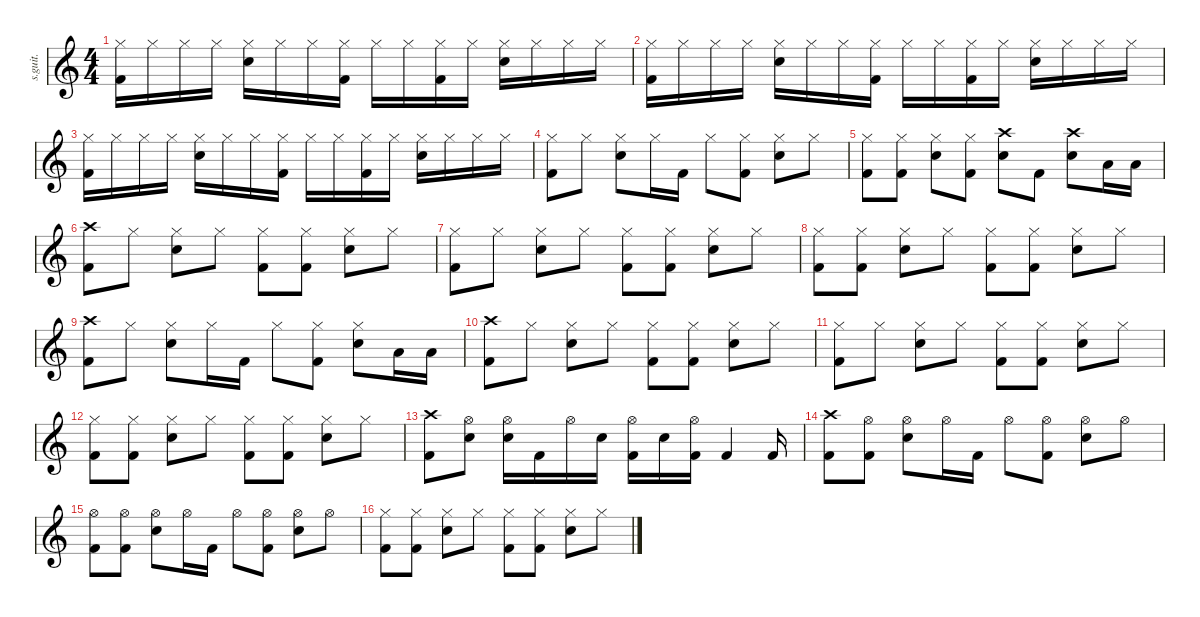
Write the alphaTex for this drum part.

\defaultSystemsLayout 4
\hideDynamics
\bracketExtendMode nobrackets
\track ("" "s.guit.") {instrument percussion}
\staff {score}
\articulation defaults
\ts (4 4)
\tempo (82 hide)
\clef g2
\ks c
("Hi-Hat (closed)" "Kick (hit) 2").16{dy f} "Hi-Hat (closed)".16 "Hi-Hat (closed)".16 "Hi-Hat (closed)".16 ("Hi-Hat (closed)" "Snare (hit) 2").16 "Hi-Hat (closed)".16 "Hi-Hat (closed)".16 ("Hi-Hat (closed)" "Kick (hit) 2").16 "Hi-Hat (closed)".16 "Hi-Hat (closed)".16 ("Hi-Hat (closed)" "Kick (hit) 2").16 "Hi-Hat (closed)".16 ("Hi-Hat (closed)" "Snare (hit) 2").16 "Hi-Hat (closed)".16 "Hi-Hat (closed)".16 "Hi-Hat (closed)".16 |
("Hi-Hat (closed)" "Kick (hit) 2").16 "Hi-Hat (closed)".16 "Hi-Hat (closed)".16 "Hi-Hat (closed)".16 ("Hi-Hat (closed)" "Snare (hit) 2").16 "Hi-Hat (closed)".16 "Hi-Hat (closed)".16 ("Hi-Hat (closed)" "Kick (hit) 2").16 "Hi-Hat (closed)".16 "Hi-Hat (closed)".16 ("Hi-Hat (closed)" "Kick (hit) 2").16 "Hi-Hat (closed)".16 ("Hi-Hat (closed)" "Snare (hit) 2").16 "Hi-Hat (closed)".16 "Hi-Hat (closed)".16 "Hi-Hat (closed)".16 |
("Hi-Hat (closed)" "Kick (hit) 2").16 "Hi-Hat (closed)".16 "Hi-Hat (closed)".16 "Hi-Hat (closed)".16 ("Hi-Hat (closed)" "Snare (hit) 2").16 "Hi-Hat (closed)".16 "Hi-Hat (closed)".16 ("Hi-Hat (closed)" "Kick (hit) 2").16 "Hi-Hat (closed)".16 "Hi-Hat (closed)".16 ("Hi-Hat (closed)" "Kick (hit) 2").16 "Hi-Hat (closed)".16 ("Hi-Hat (closed)" "Snare (hit) 2").16 "Hi-Hat (closed)".16 "Hi-Hat (closed)".16 "Hi-Hat (closed)".16 |
("Hi-Hat (closed)" "Kick (hit) 2").8 "Hi-Hat (closed)".8 ("Hi-Hat (closed)" "Snare (hit) 2").8 "Hi-Hat (closed)".16 "Kick (hit) 2".16 "Hi-Hat (closed)".8 ("Hi-Hat (closed)" "Kick (hit) 2").8 ("Hi-Hat (closed)" "Snare (hit) 2").8 "Hi-Hat (closed)".8 |
("Hi-Hat (closed)" "Kick (hit) 2").8 ("Hi-Hat (closed)" "Kick (hit) 2").8 ("Hi-Hat (closed)" "Snare (hit) 2").8 ("Hi-Hat (closed)" "Kick (hit) 2").8 ("Crash high (hit)" "Snare (hit) 2").8 "Kick (hit) 2".8 ("Crash high (hit)" "Snare (hit) 2").8 "Low Tom (hit)".16 "Low Tom (hit)".16 |
("Crash high (hit)" "Kick (hit) 2").8 "Hi-Hat (closed)".8 ("Hi-Hat (closed)" "Snare (hit) 2").8 "Hi-Hat (closed)".8 ("Hi-Hat (closed)" "Kick (hit) 2").8 ("Hi-Hat (closed)" "Kick (hit) 2").8 ("Hi-Hat (closed)" "Snare (hit) 2").8 "Hi-Hat (closed)".8 |
("Hi-Hat (closed)" "Kick (hit) 2").8 "Hi-Hat (closed)".8 ("Hi-Hat (closed)" "Snare (hit) 2").8 "Hi-Hat (closed)".8 ("Hi-Hat (closed)" "Kick (hit) 2").8 ("Hi-Hat (closed)" "Kick (hit) 2").8 ("Hi-Hat (closed)" "Snare (hit) 2").8 "Hi-Hat (closed)".8 |
("Hi-Hat (closed)" "Kick (hit) 2").8 ("Hi-Hat (closed)" "Kick (hit) 2").8 ("Hi-Hat (closed)" "Snare (hit) 2").8 "Hi-Hat (closed)".8 ("Hi-Hat (closed)" "Kick (hit) 2").8 ("Hi-Hat (closed)" "Kick (hit) 2").8 ("Hi-Hat (closed)" "Snare (hit) 2").8 "Hi-Hat (closed)".8 |
("Crash high (hit)" "Kick (hit) 2").8 "Hi-Hat (closed)".8 ("Hi-Hat (closed)" "Snare (hit) 2").8 "Hi-Hat (closed)".16 "Kick (hit) 2".16 "Hi-Hat (closed)".8 ("Hi-Hat (closed)" "Kick (hit) 2").8 ("Hi-Hat (closed)" "Snare (hit) 2").8 "Low Tom (hit)".16 "Low Tom (hit)".16 |
("Crash high (hit)" "Kick (hit) 2").8 "Hi-Hat (closed)".8 ("Hi-Hat (closed)" "Snare (hit) 2").8 "Hi-Hat (closed)".8 ("Hi-Hat (closed)" "Kick (hit) 2").8 ("Hi-Hat (closed)" "Kick (hit) 2").8 ("Hi-Hat (closed)" "Snare (hit) 2").8 "Hi-Hat (closed)".8 |
("Hi-Hat (closed)" "Kick (hit) 2").8 "Hi-Hat (closed)".8 ("Hi-Hat (closed)" "Snare (hit) 2").8 "Hi-Hat (closed)".8 ("Hi-Hat (closed)" "Kick (hit) 2").8 ("Hi-Hat (closed)" "Kick (hit) 2").8 ("Hi-Hat (closed)" "Snare (hit) 2").8 "Hi-Hat (closed)".8 |
("Hi-Hat (closed)" "Kick (hit) 2").8 ("Hi-Hat (closed)" "Kick (hit) 2").8 ("Hi-Hat (closed)" "Snare (hit) 2").8 "Hi-Hat (closed)".8 ("Hi-Hat (closed)" "Kick (hit) 2").8 ("Hi-Hat (closed)" "Kick (hit) 2").8 ("Hi-Hat (closed)" "Snare (hit) 2").8 "Hi-Hat (closed)".8 |
("Crash high (hit)" "Kick (hit) 2").8 ("Hi-Hat (open)" "Snare (hit) 2").8 ("Hi-Hat (open)" "Snare (hit) 2").16 "Kick (hit) 2".16 "Hi-Hat (open)".16 "Snare (hit) 2".16 ("Hi-Hat (open)" "Kick (hit) 2").16 "Snare (hit) 2".16 ("Hi-Hat (open)" "Kick (hit) 2").16 "Kick (hit) 2".4 "Kick (hit) 2".16 |
("Crash high (hit)" "Kick (hit) 2").8 ("Hi-Hat (open)" "Kick (hit) 2").8 ("Hi-Hat (open)" "Snare (hit) 2").8 "Hi-Hat (open)".16 "Kick (hit) 2".16 "Hi-Hat (open)".8 ("Hi-Hat (open)" "Kick (hit) 2").8 ("Hi-Hat (open)" "Snare (hit) 2").8 "Hi-Hat (open)".8 |
("Hi-Hat (open)" "Kick (hit) 2").8 ("Hi-Hat (open)" "Kick (hit) 2").8 ("Hi-Hat (open)" "Snare (hit) 2").8 "Hi-Hat (open)".16 "Kick (hit) 2".16 "Hi-Hat (open)".8 ("Hi-Hat (open)" "Kick (hit) 2").8 ("Hi-Hat (open)" "Snare (hit) 2").8 "Hi-Hat (open)".8 |
("Hi-Hat (closed)" "Kick (hit) 2").8 ("Hi-Hat (closed)" "Kick (hit) 2").8 ("Hi-Hat (closed)" "Snare (hit) 2").8 "Hi-Hat (closed)".8 ("Hi-Hat (closed)" "Kick (hit) 2").8 ("Hi-Hat (closed)" "Kick (hit) 2").8 ("Hi-Hat (closed)" "Snare (hit) 2").8 "Hi-Hat (closed)".8
